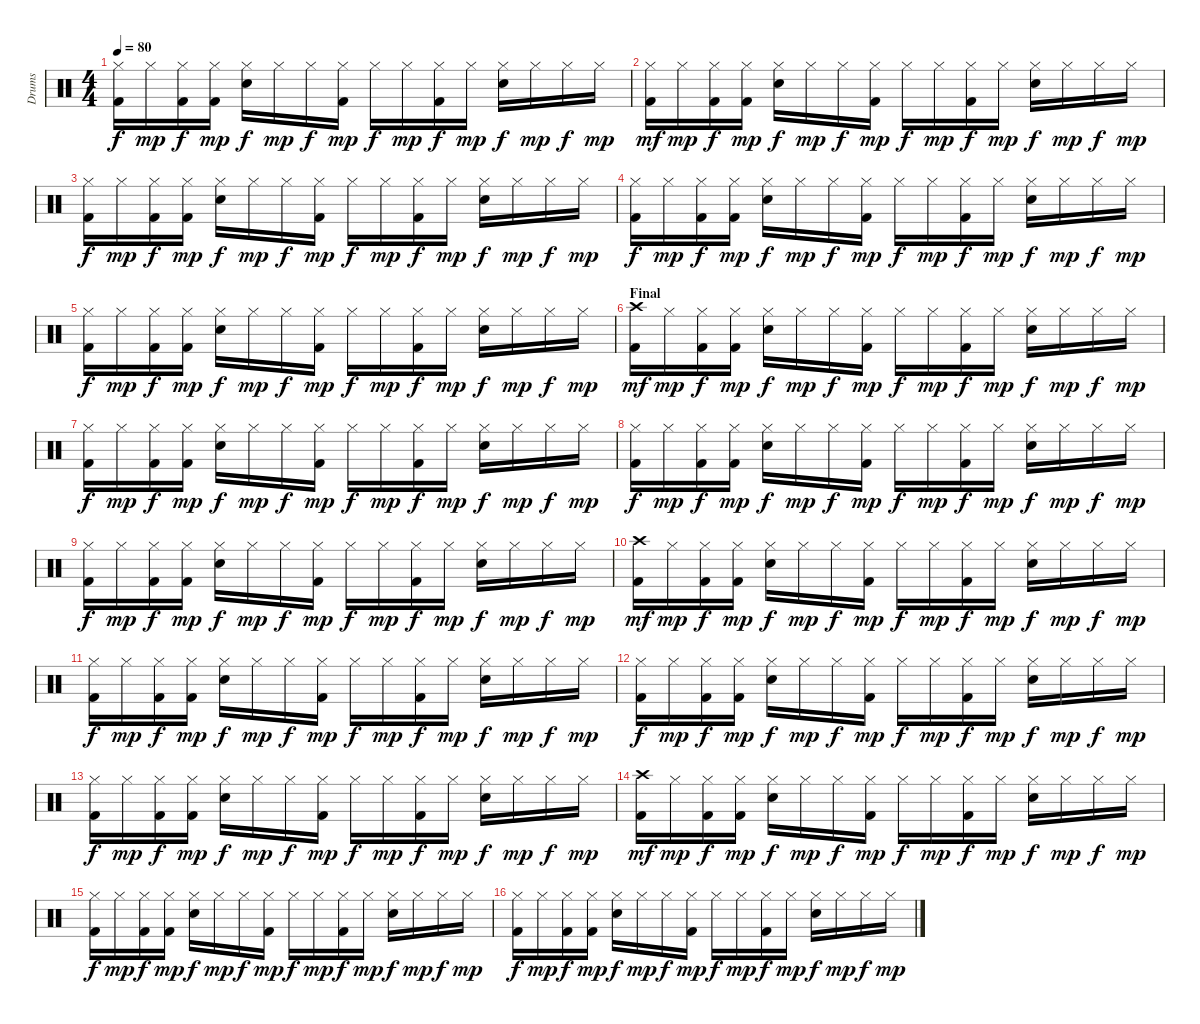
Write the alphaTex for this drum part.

\track ("Drums" "Drums") {instrument percussion}
\staff {score}
\articulation defaults
\ts (4 4)
\tempo 80
\clef neutral
\ks c
("Hi-Hat (closed)" "Kick (hit) 2").16{dy f} "Hi-Hat (closed)".16{dy mp} ("Hi-Hat (closed)" "Kick (hit) 2").16{dy f} ("Hi-Hat (closed)" "Kick (hit) 2").16{dy mp} ("Hi-Hat (closed)" "Electric Snare (hit)").16{dy f} "Hi-Hat (closed)".16{dy mp} "Hi-Hat (closed)".16{dy f} ("Hi-Hat (closed)" "Kick (hit) 2").16{dy mp} "Hi-Hat (closed)".16{dy f} "Hi-Hat (closed)".16{dy mp} ("Hi-Hat (closed)" "Kick (hit) 2").16{dy f} "Hi-Hat (closed)".16{dy mp} ("Hi-Hat (closed)" "Electric Snare (hit)").16{dy f} "Hi-Hat (closed)".16{dy mp} "Hi-Hat (closed)".16{dy f} "Hi-Hat (closed)".16{dy mp} |
("Hi-Hat (closed)" "Kick (hit) 2").16{dy mf} "Hi-Hat (closed)".16{dy mp} ("Hi-Hat (closed)" "Kick (hit) 2").16{dy f} ("Hi-Hat (closed)" "Kick (hit) 2").16{dy mp} ("Hi-Hat (closed)" "Electric Snare (hit)").16{dy f} "Hi-Hat (closed)".16{dy mp} "Hi-Hat (closed)".16{dy f} ("Hi-Hat (closed)" "Kick (hit) 2").16{dy mp} "Hi-Hat (closed)".16{dy f} "Hi-Hat (closed)".16{dy mp} ("Hi-Hat (closed)" "Kick (hit) 2").16{dy f} "Hi-Hat (closed)".16{dy mp} ("Hi-Hat (closed)" "Electric Snare (hit)").16{dy f} "Hi-Hat (closed)".16{dy mp} "Hi-Hat (closed)".16{dy f} "Hi-Hat (closed)".16{dy mp} |
("Hi-Hat (closed)" "Kick (hit) 2").16{dy f} "Hi-Hat (closed)".16{dy mp} ("Hi-Hat (closed)" "Kick (hit) 2").16{dy f} ("Hi-Hat (closed)" "Kick (hit) 2").16{dy mp} ("Hi-Hat (closed)" "Electric Snare (hit)").16{dy f} "Hi-Hat (closed)".16{dy mp} "Hi-Hat (closed)".16{dy f} ("Hi-Hat (closed)" "Kick (hit) 2").16{dy mp} "Hi-Hat (closed)".16{dy f} "Hi-Hat (closed)".16{dy mp} ("Hi-Hat (closed)" "Kick (hit) 2").16{dy f} "Hi-Hat (closed)".16{dy mp} ("Hi-Hat (closed)" "Electric Snare (hit)").16{dy f} "Hi-Hat (closed)".16{dy mp} "Hi-Hat (closed)".16{dy f} "Hi-Hat (closed)".16{dy mp} |
("Hi-Hat (closed)" "Kick (hit) 2").16{dy f} "Hi-Hat (closed)".16{dy mp} ("Hi-Hat (closed)" "Kick (hit) 2").16{dy f} ("Hi-Hat (closed)" "Kick (hit) 2").16{dy mp} ("Hi-Hat (closed)" "Electric Snare (hit)").16{dy f} "Hi-Hat (closed)".16{dy mp} "Hi-Hat (closed)".16{dy f} ("Hi-Hat (closed)" "Kick (hit) 2").16{dy mp} "Hi-Hat (closed)".16{dy f} "Hi-Hat (closed)".16{dy mp} ("Hi-Hat (closed)" "Kick (hit) 2").16{dy f} "Hi-Hat (closed)".16{dy mp} ("Hi-Hat (closed)" "Electric Snare (hit)").16{dy f} "Hi-Hat (closed)".16{dy mp} "Hi-Hat (closed)".16{dy f} "Hi-Hat (closed)".16{dy mp} |
("Hi-Hat (closed)" "Kick (hit) 2").16{dy f} "Hi-Hat (closed)".16{dy mp} ("Hi-Hat (closed)" "Kick (hit) 2").16{dy f} ("Hi-Hat (closed)" "Kick (hit) 2").16{dy mp} ("Hi-Hat (closed)" "Electric Snare (hit)").16{dy f} "Hi-Hat (closed)".16{dy mp} "Hi-Hat (closed)".16{dy f} ("Hi-Hat (closed)" "Kick (hit) 2").16{dy mp} "Hi-Hat (closed)".16{dy f} "Hi-Hat (closed)".16{dy mp} ("Hi-Hat (closed)" "Kick (hit) 2").16{dy f} "Hi-Hat (closed)".16{dy mp} ("Hi-Hat (closed)" "Electric Snare (hit)").16{dy f} "Hi-Hat (closed)".16{dy mp} "Hi-Hat (closed)".16{dy f} "Hi-Hat (closed)".16{dy mp} |
\section ("" "Final")
("Crash high (hit)" "Kick (hit) 2").16{dy mf} "Hi-Hat (closed)".16{dy mp} ("Hi-Hat (closed)" "Kick (hit) 2").16{dy f} ("Hi-Hat (closed)" "Kick (hit) 2").16{dy mp} ("Hi-Hat (closed)" "Electric Snare (hit)").16{dy f} "Hi-Hat (closed)".16{dy mp} "Hi-Hat (closed)".16{dy f} ("Hi-Hat (closed)" "Kick (hit) 2").16{dy mp} "Hi-Hat (closed)".16{dy f} "Hi-Hat (closed)".16{dy mp} ("Hi-Hat (closed)" "Kick (hit) 2").16{dy f} "Hi-Hat (closed)".16{dy mp} ("Hi-Hat (closed)" "Electric Snare (hit)").16{dy f} "Hi-Hat (closed)".16{dy mp} "Hi-Hat (closed)".16{dy f} "Hi-Hat (closed)".16{dy mp} |
("Hi-Hat (closed)" "Kick (hit) 2").16{dy f} "Hi-Hat (closed)".16{dy mp} ("Hi-Hat (closed)" "Kick (hit) 2").16{dy f} ("Hi-Hat (closed)" "Kick (hit) 2").16{dy mp} ("Hi-Hat (closed)" "Electric Snare (hit)").16{dy f} "Hi-Hat (closed)".16{dy mp} "Hi-Hat (closed)".16{dy f} ("Hi-Hat (closed)" "Kick (hit) 2").16{dy mp} "Hi-Hat (closed)".16{dy f} "Hi-Hat (closed)".16{dy mp} ("Hi-Hat (closed)" "Kick (hit) 2").16{dy f} "Hi-Hat (closed)".16{dy mp} ("Hi-Hat (closed)" "Electric Snare (hit)").16{dy f} "Hi-Hat (closed)".16{dy mp} "Hi-Hat (closed)".16{dy f} "Hi-Hat (closed)".16{dy mp} |
("Hi-Hat (closed)" "Kick (hit) 2").16{dy f} "Hi-Hat (closed)".16{dy mp} ("Hi-Hat (closed)" "Kick (hit) 2").16{dy f} ("Hi-Hat (closed)" "Kick (hit) 2").16{dy mp} ("Hi-Hat (closed)" "Electric Snare (hit)").16{dy f} "Hi-Hat (closed)".16{dy mp} "Hi-Hat (closed)".16{dy f} ("Hi-Hat (closed)" "Kick (hit) 2").16{dy mp} "Hi-Hat (closed)".16{dy f} "Hi-Hat (closed)".16{dy mp} ("Hi-Hat (closed)" "Kick (hit) 2").16{dy f} "Hi-Hat (closed)".16{dy mp} ("Hi-Hat (closed)" "Electric Snare (hit)").16{dy f} "Hi-Hat (closed)".16{dy mp} "Hi-Hat (closed)".16{dy f} "Hi-Hat (closed)".16{dy mp} |
("Hi-Hat (closed)" "Kick (hit) 2").16{dy f} "Hi-Hat (closed)".16{dy mp} ("Hi-Hat (closed)" "Kick (hit) 2").16{dy f} ("Hi-Hat (closed)" "Kick (hit) 2").16{dy mp} ("Hi-Hat (closed)" "Electric Snare (hit)").16{dy f} "Hi-Hat (closed)".16{dy mp} "Hi-Hat (closed)".16{dy f} ("Hi-Hat (closed)" "Kick (hit) 2").16{dy mp} "Hi-Hat (closed)".16{dy f} "Hi-Hat (closed)".16{dy mp} ("Hi-Hat (closed)" "Kick (hit) 2").16{dy f} "Hi-Hat (closed)".16{dy mp} ("Hi-Hat (closed)" "Electric Snare (hit)").16{dy f} "Hi-Hat (closed)".16{dy mp} "Hi-Hat (closed)".16{dy f} "Hi-Hat (closed)".16{dy mp} |
("Crash high (hit)" "Kick (hit) 2").16{dy mf} "Hi-Hat (closed)".16{dy mp} ("Hi-Hat (closed)" "Kick (hit) 2").16{dy f} ("Hi-Hat (closed)" "Kick (hit) 2").16{dy mp} ("Hi-Hat (closed)" "Electric Snare (hit)").16{dy f} "Hi-Hat (closed)".16{dy mp} "Hi-Hat (closed)".16{dy f} ("Hi-Hat (closed)" "Kick (hit) 2").16{dy mp} "Hi-Hat (closed)".16{dy f} "Hi-Hat (closed)".16{dy mp} ("Hi-Hat (closed)" "Kick (hit) 2").16{dy f} "Hi-Hat (closed)".16{dy mp} ("Hi-Hat (closed)" "Electric Snare (hit)").16{dy f} "Hi-Hat (closed)".16{dy mp} "Hi-Hat (closed)".16{dy f} "Hi-Hat (closed)".16{dy mp} |
("Hi-Hat (closed)" "Kick (hit) 2").16{dy f} "Hi-Hat (closed)".16{dy mp} ("Hi-Hat (closed)" "Kick (hit) 2").16{dy f} ("Hi-Hat (closed)" "Kick (hit) 2").16{dy mp} ("Hi-Hat (closed)" "Electric Snare (hit)").16{dy f} "Hi-Hat (closed)".16{dy mp} "Hi-Hat (closed)".16{dy f} ("Hi-Hat (closed)" "Kick (hit) 2").16{dy mp} "Hi-Hat (closed)".16{dy f} "Hi-Hat (closed)".16{dy mp} ("Hi-Hat (closed)" "Kick (hit) 2").16{dy f} "Hi-Hat (closed)".16{dy mp} ("Hi-Hat (closed)" "Electric Snare (hit)").16{dy f} "Hi-Hat (closed)".16{dy mp} "Hi-Hat (closed)".16{dy f} "Hi-Hat (closed)".16{dy mp} |
("Hi-Hat (closed)" "Kick (hit) 2").16{dy f} "Hi-Hat (closed)".16{dy mp} ("Hi-Hat (closed)" "Kick (hit) 2").16{dy f} ("Hi-Hat (closed)" "Kick (hit) 2").16{dy mp} ("Hi-Hat (closed)" "Electric Snare (hit)").16{dy f} "Hi-Hat (closed)".16{dy mp} "Hi-Hat (closed)".16{dy f} ("Hi-Hat (closed)" "Kick (hit) 2").16{dy mp} "Hi-Hat (closed)".16{dy f} "Hi-Hat (closed)".16{dy mp} ("Hi-Hat (closed)" "Kick (hit) 2").16{dy f} "Hi-Hat (closed)".16{dy mp} ("Hi-Hat (closed)" "Electric Snare (hit)").16{dy f} "Hi-Hat (closed)".16{dy mp} "Hi-Hat (closed)".16{dy f} "Hi-Hat (closed)".16{dy mp} |
("Hi-Hat (closed)" "Kick (hit) 2").16{dy f} "Hi-Hat (closed)".16{dy mp} ("Hi-Hat (closed)" "Kick (hit) 2").16{dy f} ("Hi-Hat (closed)" "Kick (hit) 2").16{dy mp} ("Hi-Hat (closed)" "Electric Snare (hit)").16{dy f} "Hi-Hat (closed)".16{dy mp} "Hi-Hat (closed)".16{dy f} ("Hi-Hat (closed)" "Kick (hit) 2").16{dy mp} "Hi-Hat (closed)".16{dy f} "Hi-Hat (closed)".16{dy mp} ("Hi-Hat (closed)" "Kick (hit) 2").16{dy f} "Hi-Hat (closed)".16{dy mp} ("Hi-Hat (closed)" "Electric Snare (hit)").16{dy f} "Hi-Hat (closed)".16{dy mp} "Hi-Hat (closed)".16{dy f} "Hi-Hat (closed)".16{dy mp} |
("Crash high (hit)" "Kick (hit) 2").16{dy mf} "Hi-Hat (closed)".16{dy mp} ("Hi-Hat (closed)" "Kick (hit) 2").16{dy f} ("Hi-Hat (closed)" "Kick (hit) 2").16{dy mp} ("Hi-Hat (closed)" "Electric Snare (hit)").16{dy f} "Hi-Hat (closed)".16{dy mp} "Hi-Hat (closed)".16{dy f} ("Hi-Hat (closed)" "Kick (hit) 2").16{dy mp} "Hi-Hat (closed)".16{dy f} "Hi-Hat (closed)".16{dy mp} ("Hi-Hat (closed)" "Kick (hit) 2").16{dy f} "Hi-Hat (closed)".16{dy mp} ("Hi-Hat (closed)" "Electric Snare (hit)").16{dy f} "Hi-Hat (closed)".16{dy mp} "Hi-Hat (closed)".16{dy f} "Hi-Hat (closed)".16{dy mp} |
("Hi-Hat (closed)" "Kick (hit) 2").16{dy f volume 0} "Hi-Hat (closed)".16{dy mp} ("Hi-Hat (closed)" "Kick (hit) 2").16{dy f} ("Hi-Hat (closed)" "Kick (hit) 2").16{dy mp} ("Hi-Hat (closed)" "Electric Snare (hit)").16{dy f} "Hi-Hat (closed)".16{dy mp} "Hi-Hat (closed)".16{dy f} ("Hi-Hat (closed)" "Kick (hit) 2").16{dy mp} "Hi-Hat (closed)".16{dy f} "Hi-Hat (closed)".16{dy mp} ("Hi-Hat (closed)" "Kick (hit) 2").16{dy f} "Hi-Hat (closed)".16{dy mp} ("Hi-Hat (closed)" "Electric Snare (hit)").16{dy f} "Hi-Hat (closed)".16{dy mp} "Hi-Hat (closed)".16{dy f} "Hi-Hat (closed)".16{dy mp} |
("Hi-Hat (closed)" "Kick (hit) 2").16{dy f} "Hi-Hat (closed)".16{dy mp} ("Hi-Hat (closed)" "Kick (hit) 2").16{dy f} ("Hi-Hat (closed)" "Kick (hit) 2").16{dy mp} ("Hi-Hat (closed)" "Electric Snare (hit)").16{dy f} "Hi-Hat (closed)".16{dy mp} "Hi-Hat (closed)".16{dy f} ("Hi-Hat (closed)" "Kick (hit) 2").16{dy mp} "Hi-Hat (closed)".16{dy f} "Hi-Hat (closed)".16{dy mp} ("Hi-Hat (closed)" "Kick (hit) 2").16{dy f} "Hi-Hat (closed)".16{dy mp} ("Hi-Hat (closed)" "Electric Snare (hit)").16{dy f} "Hi-Hat (closed)".16{dy mp} "Hi-Hat (closed)".16{dy f} "Hi-Hat (closed)".16{dy mp}
